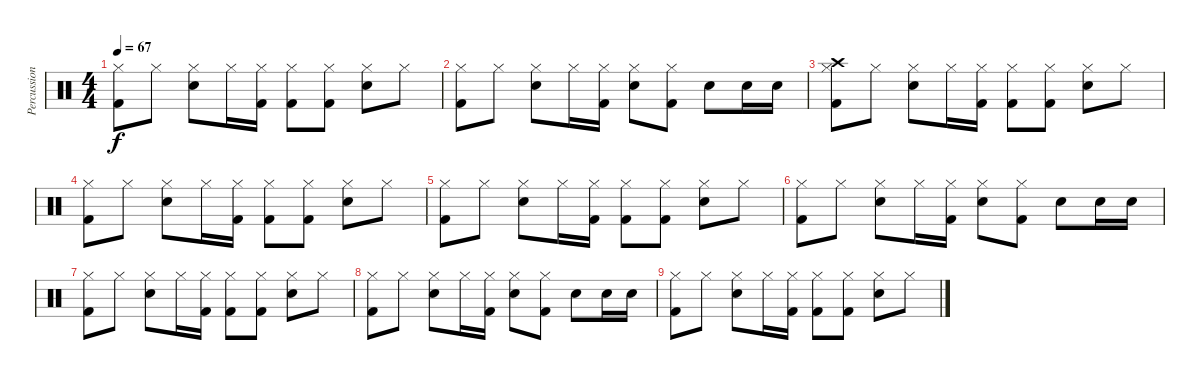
\track ("Percussion" "Percussion") {instrument percussion}
\staff {score}
\articulation defaults
\ts (4 4)
\tempo 67
\clef neutral
\ks c
("Hi-Hat (closed)" "Kick (hit) 2").8{dy f} "Hi-Hat (closed)".8 ("Hi-Hat (closed)" "Snare (hit) 2").8 "Hi-Hat (closed)".16 ("Hi-Hat (closed)" "Kick (hit) 2").16 ("Hi-Hat (closed)" "Kick (hit) 2").8 ("Hi-Hat (closed)" "Kick (hit) 2").8 ("Hi-Hat (closed)" "Snare (hit) 2").8 "Hi-Hat (closed)".8 |
("Hi-Hat (closed)" "Kick (hit) 2").8 "Hi-Hat (closed)".8 ("Snare (hit) 2" "Hi-Hat (closed)").8 "Hi-Hat (closed)".16 ("Hi-Hat (closed)" "Kick (hit) 2").16 ("Hi-Hat (closed)" "Snare (hit) 2").8 ("Hi-Hat (closed)" "Kick (hit) 2").8 "Snare (hit) 2".8 "Snare (hit) 2".16 "Snare (hit) 2".16 |
("Hi-Hat (closed)" "Crash high (hit)" "Kick (hit) 2").8 "Hi-Hat (closed)".8 ("Hi-Hat (closed)" "Snare (hit) 2").8 "Hi-Hat (closed)".16 ("Hi-Hat (closed)" "Kick (hit) 2").16 ("Hi-Hat (closed)" "Kick (hit) 2").8 ("Hi-Hat (closed)" "Kick (hit) 2").8 ("Hi-Hat (closed)" "Snare (hit) 2").8 "Hi-Hat (closed)".8 |
("Hi-Hat (closed)" "Kick (hit) 2").8 "Hi-Hat (closed)".8 ("Hi-Hat (closed)" "Snare (hit) 2").8 "Hi-Hat (closed)".16 ("Hi-Hat (closed)" "Kick (hit) 2").16 ("Hi-Hat (closed)" "Kick (hit) 2").8 ("Hi-Hat (closed)" "Kick (hit) 2").8 ("Hi-Hat (closed)" "Snare (hit) 2").8 "Hi-Hat (closed)".8 |
("Hi-Hat (closed)" "Kick (hit) 2").8 "Hi-Hat (closed)".8 ("Hi-Hat (closed)" "Snare (hit) 2").8 "Hi-Hat (closed)".16 ("Hi-Hat (closed)" "Kick (hit) 2").16 ("Hi-Hat (closed)" "Kick (hit) 2").8 ("Hi-Hat (closed)" "Kick (hit) 2").8 ("Hi-Hat (closed)" "Snare (hit) 2").8 "Hi-Hat (closed)".8 |
("Hi-Hat (closed)" "Kick (hit) 2").8 "Hi-Hat (closed)".8 ("Snare (hit) 2" "Hi-Hat (closed)").8 "Hi-Hat (closed)".16 ("Hi-Hat (closed)" "Kick (hit) 2").16 ("Hi-Hat (closed)" "Snare (hit) 2").8 ("Hi-Hat (closed)" "Kick (hit) 2").8 "Snare (hit) 2".8 "Snare (hit) 2".16 "Snare (hit) 2".16 |
("Hi-Hat (closed)" "Kick (hit) 2").8 "Hi-Hat (closed)".8 ("Hi-Hat (closed)" "Snare (hit) 2").8 "Hi-Hat (closed)".16 ("Hi-Hat (closed)" "Kick (hit) 2").16 ("Hi-Hat (closed)" "Kick (hit) 2").8 ("Hi-Hat (closed)" "Kick (hit) 2").8 ("Hi-Hat (closed)" "Snare (hit) 2").8 "Hi-Hat (closed)".8 |
("Hi-Hat (closed)" "Kick (hit) 2").8 "Hi-Hat (closed)".8 ("Snare (hit) 2" "Hi-Hat (closed)").8 "Hi-Hat (closed)".16 ("Hi-Hat (closed)" "Kick (hit) 2").16 ("Hi-Hat (closed)" "Snare (hit) 2").8 ("Hi-Hat (closed)" "Kick (hit) 2").8 "Snare (hit) 2".8 "Snare (hit) 2".16 "Snare (hit) 2".16 |
("Hi-Hat (closed)" "Kick (hit) 2").8 "Hi-Hat (closed)".8 ("Hi-Hat (closed)" "Snare (hit) 2").8 "Hi-Hat (closed)".16 ("Hi-Hat (closed)" "Kick (hit) 2").16 ("Hi-Hat (closed)" "Kick (hit) 2").8 ("Hi-Hat (closed)" "Kick (hit) 2").8 ("Hi-Hat (closed)" "Snare (hit) 2").8 "Hi-Hat (closed)".8
